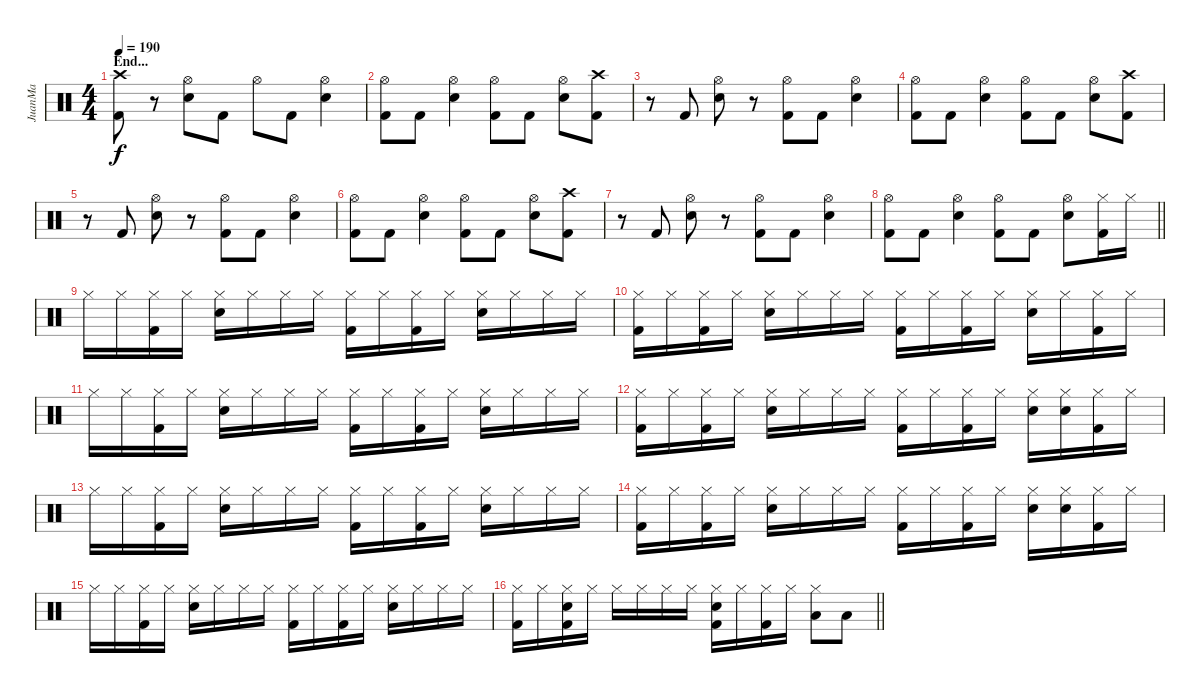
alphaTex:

\track ("JuanMa" "JuanMa") {instrument percussion}
\staff {score}
\articulation defaults
\ts (4 4)
\section ("" "End...")
\tempo 190
\clef neutral
\ks c
("Crash high (hit)" "Kick (hit) 2").8{dy f} r.8 ("Hi-Hat (open)" "Electric Snare (hit)").8 "Kick (hit) 2".8 "Hi-Hat (open)".8 "Kick (hit) 2".8 ("Hi-Hat (open)" "Electric Snare (hit)").4 |
("Hi-Hat (open)" "Kick (hit) 2").8 "Kick (hit) 2".8 ("Hi-Hat (open)" "Electric Snare (hit)").4 ("Hi-Hat (open)" "Kick (hit) 2").8 "Kick (hit) 2".8 ("Hi-Hat (open)" "Electric Snare (hit)").8 ("Crash high (hit)" "Kick (hit) 2").8 |
r.8 "Kick (hit) 2".8 ("Hi-Hat (open)" "Electric Snare (hit)").8 r.8 ("Hi-Hat (open)" "Kick (hit) 2").8 "Kick (hit) 2".8 ("Hi-Hat (open)" "Electric Snare (hit)").4 |
("Hi-Hat (open)" "Kick (hit) 2").8 "Kick (hit) 2".8 ("Hi-Hat (open)" "Electric Snare (hit)").4 ("Hi-Hat (open)" "Kick (hit) 2").8 "Kick (hit) 2".8 ("Hi-Hat (open)" "Electric Snare (hit)").8 ("Crash high (hit)" "Kick (hit) 2").8 |
r.8 "Kick (hit) 2".8 ("Hi-Hat (open)" "Electric Snare (hit)").8 r.8 ("Hi-Hat (open)" "Kick (hit) 2").8 "Kick (hit) 2".8 ("Hi-Hat (open)" "Electric Snare (hit)").4 |
("Hi-Hat (open)" "Kick (hit) 2").8 "Kick (hit) 2".8 ("Hi-Hat (open)" "Electric Snare (hit)").4 ("Hi-Hat (open)" "Kick (hit) 2").8 "Kick (hit) 2".8 ("Hi-Hat (open)" "Electric Snare (hit)").8 ("Crash high (hit)" "Kick (hit) 2").8 |
r.8 "Kick (hit) 2".8 ("Hi-Hat (open)" "Electric Snare (hit)").8 r.8 ("Hi-Hat (open)" "Kick (hit) 2").8 "Kick (hit) 2".8 ("Hi-Hat (open)" "Electric Snare (hit)").4 |
\barLineRight lightlight
("Hi-Hat (open)" "Kick (hit) 2").8 "Kick (hit) 2".8 ("Hi-Hat (open)" "Electric Snare (hit)").4 ("Hi-Hat (open)" "Kick (hit) 2").8 "Kick (hit) 2".8 ("Hi-Hat (open)" "Electric Snare (hit)").8 ("Hi-Hat (closed)" "Kick (hit) 2").16 "Hi-Hat (closed)".16 |
"Hi-Hat (closed)".16 "Hi-Hat (closed)".16 ("Hi-Hat (closed)" "Kick (hit) 2").16 "Hi-Hat (closed)".16 ("Hi-Hat (closed)" "Electric Snare (hit)").16 "Hi-Hat (closed)".16 "Hi-Hat (closed)".16 "Hi-Hat (closed)".16 ("Hi-Hat (closed)" "Kick (hit) 2").16 "Hi-Hat (closed)".16 ("Hi-Hat (closed)" "Kick (hit) 2").16 "Hi-Hat (closed)".16 ("Hi-Hat (closed)" "Electric Snare (hit)").16 "Hi-Hat (closed)".16 "Hi-Hat (closed)".16 "Hi-Hat (closed)".16 |
("Hi-Hat (closed)" "Kick (hit) 2").16 "Hi-Hat (closed)".16 ("Hi-Hat (closed)" "Kick (hit) 2").16 "Hi-Hat (closed)".16 ("Hi-Hat (closed)" "Electric Snare (hit)").16 "Hi-Hat (closed)".16 "Hi-Hat (closed)".16 "Hi-Hat (closed)".16 ("Hi-Hat (closed)" "Kick (hit) 2").16 "Hi-Hat (closed)".16 ("Hi-Hat (closed)" "Kick (hit) 2").16 "Hi-Hat (closed)".16 ("Hi-Hat (closed)" "Electric Snare (hit)").16 "Hi-Hat (closed)".16 ("Hi-Hat (closed)" "Kick (hit) 2").16 "Hi-Hat (closed)".16 |
"Hi-Hat (closed)".16 "Hi-Hat (closed)".16 ("Hi-Hat (closed)" "Kick (hit) 2").16 "Hi-Hat (closed)".16 ("Hi-Hat (closed)" "Electric Snare (hit)").16 "Hi-Hat (closed)".16 "Hi-Hat (closed)".16 "Hi-Hat (closed)".16 ("Hi-Hat (closed)" "Kick (hit) 2").16 "Hi-Hat (closed)".16 ("Hi-Hat (closed)" "Kick (hit) 2").16 "Hi-Hat (closed)".16 ("Hi-Hat (closed)" "Electric Snare (hit)").16 "Hi-Hat (closed)".16 "Hi-Hat (closed)".16 "Hi-Hat (closed)".16 |
("Hi-Hat (closed)" "Kick (hit) 2").16 "Hi-Hat (closed)".16 ("Hi-Hat (closed)" "Kick (hit) 2").16 "Hi-Hat (closed)".16 ("Hi-Hat (closed)" "Electric Snare (hit)").16 "Hi-Hat (closed)".16 "Hi-Hat (closed)".16 "Hi-Hat (closed)".16 ("Hi-Hat (closed)" "Kick (hit) 2").16 "Hi-Hat (closed)".16 ("Hi-Hat (closed)" "Kick (hit) 2").16 "Hi-Hat (closed)".16 ("Hi-Hat (closed)" "Electric Snare (hit)").16 ("Hi-Hat (closed)" "Electric Snare (hit)").16 ("Hi-Hat (closed)" "Kick (hit) 2").16 "Hi-Hat (closed)".16 |
"Hi-Hat (closed)".16 "Hi-Hat (closed)".16 ("Hi-Hat (closed)" "Kick (hit) 2").16 "Hi-Hat (closed)".16 ("Hi-Hat (closed)" "Electric Snare (hit)").16 "Hi-Hat (closed)".16 "Hi-Hat (closed)".16 "Hi-Hat (closed)".16 ("Hi-Hat (closed)" "Kick (hit) 2").16 "Hi-Hat (closed)".16 ("Hi-Hat (closed)" "Kick (hit) 2").16 "Hi-Hat (closed)".16 ("Hi-Hat (closed)" "Electric Snare (hit)").16 "Hi-Hat (closed)".16 "Hi-Hat (closed)".16 "Hi-Hat (closed)".16 |
("Hi-Hat (closed)" "Kick (hit) 2").16 "Hi-Hat (closed)".16 ("Hi-Hat (closed)" "Kick (hit) 2").16 "Hi-Hat (closed)".16 ("Hi-Hat (closed)" "Electric Snare (hit)").16 "Hi-Hat (closed)".16 "Hi-Hat (closed)".16 "Hi-Hat (closed)".16 ("Hi-Hat (closed)" "Kick (hit) 2").16 "Hi-Hat (closed)".16 ("Hi-Hat (closed)" "Kick (hit) 2").16 "Hi-Hat (closed)".16 ("Hi-Hat (closed)" "Electric Snare (hit)").16 ("Hi-Hat (closed)" "Electric Snare (hit)").16 ("Hi-Hat (closed)" "Kick (hit) 2").16 "Hi-Hat (closed)".16 |
"Hi-Hat (closed)".16 "Hi-Hat (closed)".16 ("Hi-Hat (closed)" "Kick (hit) 2").16 "Hi-Hat (closed)".16 ("Hi-Hat (closed)" "Electric Snare (hit)").16 "Hi-Hat (closed)".16 "Hi-Hat (closed)".16 "Hi-Hat (closed)".16 ("Hi-Hat (closed)" "Kick (hit) 2").16 "Hi-Hat (closed)".16 ("Hi-Hat (closed)" "Kick (hit) 2").16 "Hi-Hat (closed)".16 ("Hi-Hat (closed)" "Electric Snare (hit)").16 "Hi-Hat (closed)".16 "Hi-Hat (closed)".16 "Hi-Hat (closed)".16 |
\barLineRight lightlight
("Hi-Hat (closed)" "Kick (hit) 2").16 "Hi-Hat (closed)".16 ("Hi-Hat (closed)" "Electric Snare (hit)" "Kick (hit) 2").16 "Hi-Hat (closed)".16 "Hi-Hat (closed)".16 "Hi-Hat (closed)".16 "Hi-Hat (closed)".16 "Hi-Hat (closed)".16 ("Hi-Hat (closed)" "Electric Snare (hit)" "Kick (hit) 2").16 "Hi-Hat (closed)".16 ("Hi-Hat (closed)" "Kick (hit) 2").16 "Hi-Hat (closed)".16 ("Hi-Hat (closed)" "Low Floor Tom (hit)").8 "Low Floor Tom (hit)".8
